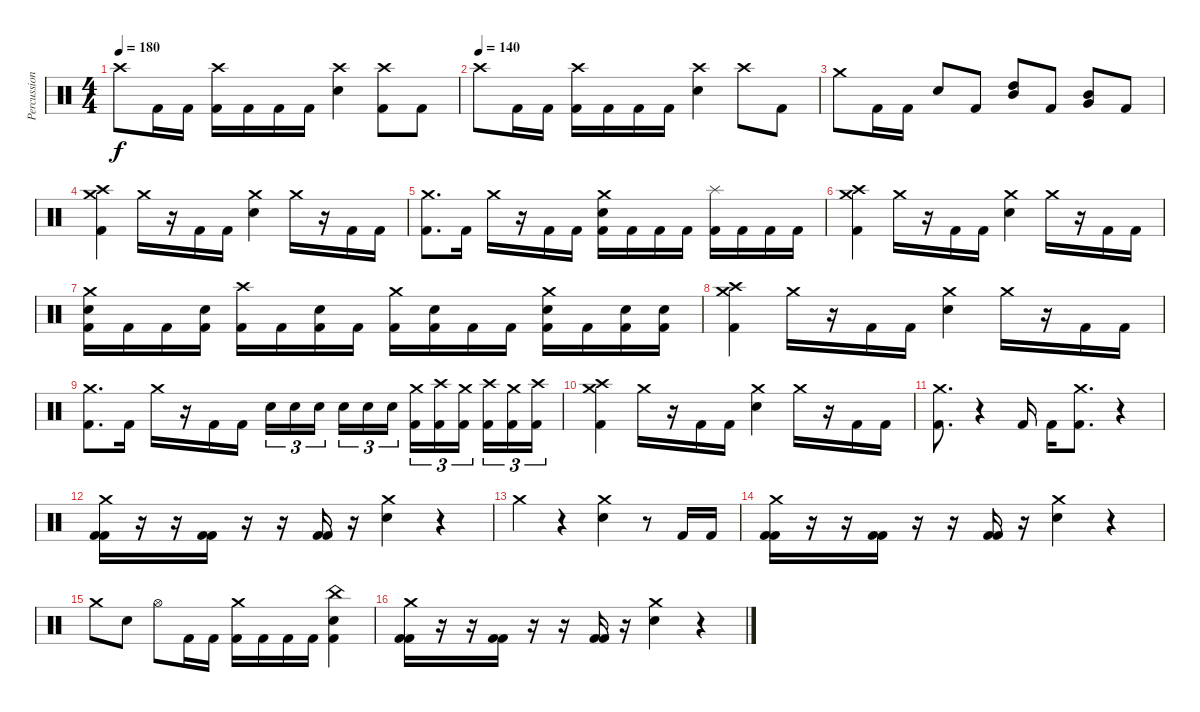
\track ("Percussion" "Percussion") {instrument percussion}
\staff {score}
\articulation defaults
\ts (4 4)
\tempo 180
\clef neutral
\ks c "Crash high (hit)".8{dy f} "Kick (hit) 2".16 "Kick (hit) 2".16
("Crash high (hit)" "Kick (hit) 2").16 "Kick (hit) 2".16 "Kick (hit) 2".16 "Kick (hit) 2".16 ("Crash high (hit)" "Electric Snare (hit)").4 ("Kick (hit) 2" "Crash high (hit)").8 "Kick (hit) 2".8 |
\tempo (140)
"Crash high (hit)".8 "Kick (hit) 2".16 "Kick (hit) 2".16 ("Crash high (hit)" "Kick (hit) 2").16 "Kick (hit) 2".16 "Kick (hit) 2".16 "Kick (hit) 2".16 ("Crash high (hit)" "Electric Snare (hit)").4 "Crash high (hit)".8 "Kick (hit) 2".8 |
"Crash medium (hit)".8 "Kick (hit) 2".16 "Kick (hit) 2".16 "Electric Snare (hit)".8 "Kick (hit) 2".8 ("High Tom (hit)" "Mid Tom (hit)").8 "Kick (hit) 2".8 ("Mid Tom (hit)" "Very Low Tom (hit)").8 "Kick (hit) 2".8 |
("Crash medium (hit)" "Crash high (hit)" "Kick (hit) 2").4 "Crash medium (hit)".16 r.16 "Kick (hit) 2".16 "Kick (hit) 2".16 ("Crash medium (hit)" "Electric Snare (hit)").4 "Crash medium (hit)".16 r.16 "Kick (hit) 2".16 "Kick (hit) 2".16 |
("Crash medium (hit)" "Kick (hit) 2").8{d} "Kick (hit) 2".16 "Crash medium (hit)".16 r.16 "Kick (hit) 2".16 "Kick (hit) 2".16 ("Crash medium (hit)" "Electric Snare (hit)" "Kick (hit) 2").16 "Kick (hit) 2".16 "Kick (hit) 2".16 "Kick (hit) 2".16 ("Splash (hit)" "Kick (hit) 2").16 "Kick (hit) 2".16 "Kick (hit) 2".16 "Kick (hit) 2".16 |
("Crash medium (hit)" "Crash high (hit)" "Kick (hit) 2").4 "Crash medium (hit)".16 r.16 "Kick (hit) 2".16 "Kick (hit) 2".16 ("Crash medium (hit)" "Electric Snare (hit)").4 "Crash medium (hit)".16 r.16 "Kick (hit) 2".16 "Kick (hit) 2".16 |
("Crash medium (hit)" "Electric Snare (hit)" "Kick (hit) 2").16 "Kick (hit) 2".16 "Kick (hit) 2".16 ("Electric Snare (hit)" "Kick (hit) 2").16 ("Crash high (hit)" "Kick (hit) 2").16 "Kick (hit) 2".16 ("Electric Snare (hit)" "Kick (hit) 2").16 "Kick (hit) 2".16 ("Crash medium (hit)" "Kick (hit) 2").16 ("Electric Snare (hit)" "Kick (hit) 2").16 "Kick (hit) 2".16 "Kick (hit) 2".16 ("Crash medium (hit)" "Electric Snare (hit)" "Kick (hit) 2").16 "Kick (hit) 2".16 ("Electric Snare (hit)" "Kick (hit) 2").16 ("Electric Snare (hit)" "Kick (hit) 2").16 |
("Crash medium (hit)" "Crash high (hit)" "Kick (hit) 2").4 "Crash medium (hit)".16 r.16 "Kick (hit) 2".16 "Kick (hit) 2".16 ("Crash medium (hit)" "Electric Snare (hit)").4 "Crash medium (hit)".16 r.16 "Kick (hit) 2".16 "Kick (hit) 2".16 |
("Crash medium (hit)" "Kick (hit) 2").8{d} "Kick (hit) 2".16 "Crash medium (hit)".16 r.16 "Kick (hit) 2".16 "Kick (hit) 2".16 "Electric Snare (hit)".16{tu (3 2)} "Electric Snare (hit)".16{tu (3 2)} "Electric Snare (hit)".16{tu (3 2) beam splitsecondary} "Electric Snare (hit)".16{tu (3 2)} "Electric Snare (hit)".16{tu (3 2)} "Electric Snare (hit)".16{tu (3 2)} ("Crash medium (hit)" "Kick (hit) 2").16{tu (3 2)} ("Crash high (hit)" "Kick (hit) 2").16{tu (3 2)} ("Crash medium (hit)" "Kick (hit) 2").16{tu (3 2) beam splitsecondary} ("Crash high (hit)" "Kick (hit) 2").16{tu (3 2)} ("Crash medium (hit)" "Kick (hit) 2").16{tu (3 2)} ("Crash high (hit)" "Kick (hit) 2").16{tu (3 2)} |
("Crash medium (hit)" "Crash high (hit)" "Kick (hit) 2").4 "Crash medium (hit)".16 r.16 "Kick (hit) 2".16 "Kick (hit) 2".16 ("Crash medium (hit)" "Electric Snare (hit)").4 "Crash medium (hit)".16 r.16 "Kick (hit) 2".16 "Kick (hit) 2".16 |
("Crash medium (hit)" "Kick (hit) 2").8{d} r.4 "Kick (hit) 2".16 "Kick (hit) 2".16 ("Crash medium (hit)" "Kick (hit) 2").8{d} r.4 |
("Crash medium (hit)" "Kick (hit) 2" "Kick (hit) 2").16 r.16 r.16 ("Kick (hit) 2" "Kick (hit) 2").16 r.16 r.16 ("Kick (hit) 2" "Kick (hit) 2").16 r.16 ("Crash medium (hit)" "Electric Snare (hit)").4 r.4 |
"Crash medium (hit)".4 r.4 ("Crash medium (hit)" "Electric Snare (hit)").4 r.8 "Kick (hit) 2".16 "Kick (hit) 2".16 |
("Crash medium (hit)" "Kick (hit) 2" "Kick (hit) 2").16 r.16 r.16 ("Kick (hit) 2" "Kick (hit) 2").16 r.16 r.16 ("Kick (hit) 2" "Kick (hit) 2").16 r.16 ("Crash medium (hit)" "Electric Snare (hit)").4 r.4 |
"Crash medium (hit)".8 "Electric Snare (hit)".8 "Hi-Hat (open)".8 "Kick (hit) 2".16 "Kick (hit) 2".16 ("Crash medium (hit)" "Kick (hit) 2").16 "Kick (hit) 2".16 "Kick (hit) 2".16 "Kick (hit) 2".16 ("China (hit)" "Electric Snare (hit)" "Kick (hit) 2").4 |
("Crash medium (hit)" "Kick (hit) 2" "Kick (hit) 2").16 r.16 r.16 ("Kick (hit) 2" "Kick (hit) 2").16 r.16 r.16 ("Kick (hit) 2" "Kick (hit) 2").16 r.16 ("Crash medium (hit)" "Electric Snare (hit)").4 r.4
